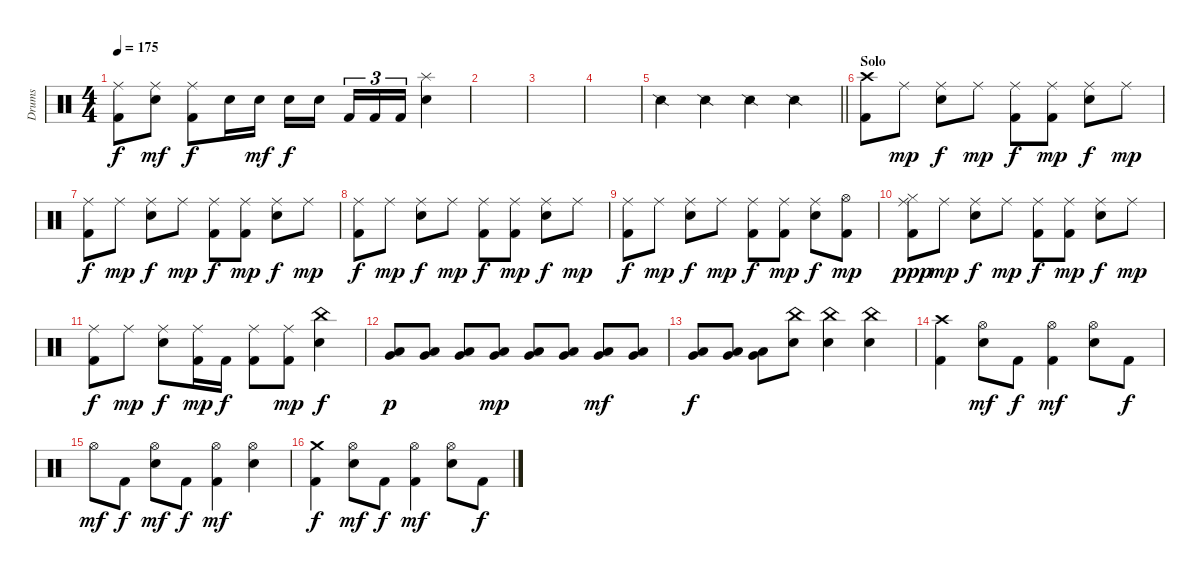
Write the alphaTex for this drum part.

\track ("Drums" "Drums") {instrument percussion}
\staff {score}
\articulation defaults
\ts (4 4)
\tempo 175
\clef neutral
\ks c
("Kick (hit) 2" "Ride (middle)").8{dy f} ("Ride (middle)" "Electric Snare (hit)").8{dy mf} ("Kick (hit) 2" "Ride (middle)").8{dy f} "Electric Snare (hit)".16 "Electric Snare (hit)".16{dy mf} "Electric Snare (hit)".16{dy f} "Electric Snare (hit)".16{beam splitsecondary} "Kick (hit) 2".16{tu (3 2)} "Kick (hit) 2".16{tu (3 2)} "Kick (hit) 2".16{tu (3 2)} ("Splash (hit)" "Electric Snare (hit)").4 |
|
|
|
\barLineRight lightlight "Snare (side stick) 2".4 "Snare (side stick) 2".4 "Snare (side stick) 2".4 "Snare (side stick) 2".4
|
\section ("" "Solo")
("Kick (hit) 2" "Crash high (hit)").8 "Ride (middle)".8{dy mp} ("Ride (middle)" "Electric Snare (hit)").8{dy f} "Ride (middle)".8{dy mp} ("Kick (hit) 2" "Ride (middle)").8{dy f} ("Kick (hit) 2" "Ride (middle)").8{dy mp} ("Ride (middle)" "Electric Snare (hit)").8{dy f} "Ride (middle)".8{dy mp} |
("Kick (hit) 2" "Ride (middle)").8{dy f} "Ride (middle)".8{dy mp} ("Ride (middle)" "Electric Snare (hit)").8{dy f} "Ride (middle)".8{dy mp} ("Kick (hit) 2" "Ride (middle)").8{dy f} ("Kick (hit) 2" "Ride (middle)").8{dy mp} ("Ride (middle)" "Electric Snare (hit)").8{dy f} "Ride (middle)".8{dy mp} |
("Kick (hit) 2" "Ride (middle)").8{dy f} "Ride (middle)".8{dy mp} ("Ride (middle)" "Electric Snare (hit)").8{dy f} "Ride (middle)".8{dy mp} ("Kick (hit) 2" "Ride (middle)").8{dy f} ("Kick (hit) 2" "Ride (middle)").8{dy mp} ("Ride (middle)" "Electric Snare (hit)").8{dy f} "Ride (middle)".8{dy mp} |
("Kick (hit) 2" "Ride (middle)").8{dy f} "Ride (middle)".8{dy mp} ("Ride (middle)" "Electric Snare (hit)").8{dy f} "Ride (middle)".8{dy mp} ("Kick (hit) 2" "Ride (middle)").8{dy f} ("Kick (hit) 2" "Ride (middle)").8{dy mp} ("Ride (middle)" "Electric Snare (hit)").8{dy f} ("Kick (hit) 2" "Hi-Hat (open)").8{dy mp} |
("Kick (hit) 2" "Ride (middle)" "Hi-Hat (closed)").8{dy ppp} "Ride (middle)".8{dy mp} ("Ride (middle)" "Electric Snare (hit)").8{dy f} "Ride (middle)".8{dy mp} ("Kick (hit) 2" "Ride (middle)").8{dy f} ("Kick (hit) 2" "Ride (middle)").8{dy mp} ("Ride (middle)" "Electric Snare (hit)").8{dy f} "Ride (middle)".8{dy mp} |
("Kick (hit) 2" "Ride (middle)").8{dy f} "Ride (middle)".8{dy mp} ("Ride (middle)" "Electric Snare (hit)").8{dy f} ("Kick (hit) 2" "Ride (middle)").16{dy mp} "Kick (hit) 2".16{dy f} ("Kick (hit) 2" "Ride (middle)").8 ("Kick (hit) 2" "Ride (middle)").8{dy mp} ("China (hit)" "Electric Snare (hit)").4{dy f} |
("Low Floor Tom (hit)" "Very Low Tom (hit)").8{dy p} ("Low Floor Tom (hit)" "Very Low Tom (hit)").8 ("Low Floor Tom (hit)" "Very Low Tom (hit)").8 ("Low Floor Tom (hit)" "Very Low Tom (hit)").8{dy mp} ("Low Floor Tom (hit)" "Very Low Tom (hit)").8 ("Low Floor Tom (hit)" "Very Low Tom (hit)").8 ("Low Floor Tom (hit)" "Very Low Tom (hit)").8{dy mf} ("Low Floor Tom (hit)" "Very Low Tom (hit)").8 |
("Low Floor Tom (hit)" "Very Low Tom (hit)").8{dy f} ("Low Floor Tom (hit)" "Very Low Tom (hit)").8 ("Low Floor Tom (hit)" "Very Low Tom (hit)").8 ("China (hit)" "Electric Snare (hit)").8 ("China (hit)" "Electric Snare (hit)").4 ("China (hit)" "Electric Snare (hit)").4 |
("Kick (hit) 2" "Crash high (hit)").4 ("Hi-Hat (open)" "Electric Snare (hit)").8{dy mf} "Kick (hit) 2".8{dy f} ("Kick (hit) 2" "Hi-Hat (open)").4{dy mf} ("Hi-Hat (open)" "Electric Snare (hit)").8 "Kick (hit) 2".8{dy f} |
"Hi-Hat (open)".8{dy mf} "Kick (hit) 2".8{dy f} ("Hi-Hat (open)" "Electric Snare (hit)").8{dy mf} "Kick (hit) 2".8{dy f} ("Kick (hit) 2" "Hi-Hat (open)").4{dy mf} ("Hi-Hat (open)" "Electric Snare (hit)").4 |
("Kick (hit) 2" "Crash medium (hit)").4{dy f} ("Hi-Hat (open)" "Electric Snare (hit)").8{dy mf} "Kick (hit) 2".8{dy f} ("Kick (hit) 2" "Hi-Hat (open)").4{dy mf} ("Hi-Hat (open)" "Electric Snare (hit)").8 "Kick (hit) 2".8{dy f}
